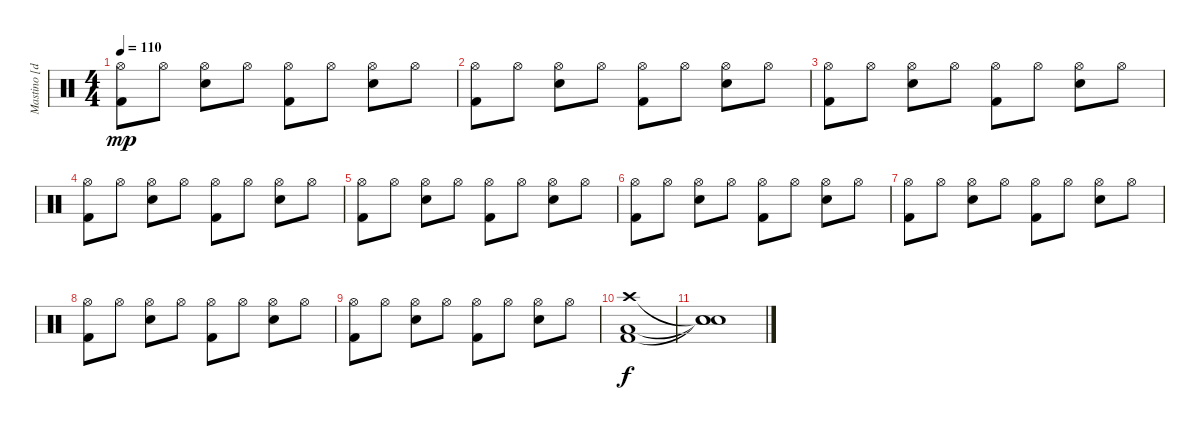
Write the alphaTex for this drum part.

\track ("Mastino [drums]" "Mastino [d") {instrument percussion}
\staff {score}
\articulation defaults
\ts (4 4)
\tempo 110
\clef neutral
\ks c
("Hi-Hat (open)" "Kick (hit) 2").8{dy mp} "Hi-Hat (open)".8 ("Hi-Hat (open)" "Electric Snare (hit)").8 "Hi-Hat (open)".8 ("Hi-Hat (open)" "Kick (hit) 2").8 "Hi-Hat (open)".8 ("Hi-Hat (open)" "Electric Snare (hit)").8 "Hi-Hat (open)".8 |
("Hi-Hat (open)" "Kick (hit) 2").8 "Hi-Hat (open)".8 ("Hi-Hat (open)" "Electric Snare (hit)").8 "Hi-Hat (open)".8 ("Hi-Hat (open)" "Kick (hit) 2").8 "Hi-Hat (open)".8 ("Hi-Hat (open)" "Electric Snare (hit)").8 "Hi-Hat (open)".8 |
("Hi-Hat (open)" "Kick (hit) 2").8 "Hi-Hat (open)".8 ("Hi-Hat (open)" "Electric Snare (hit)").8 "Hi-Hat (open)".8 ("Hi-Hat (open)" "Kick (hit) 2").8 "Hi-Hat (open)".8 ("Hi-Hat (open)" "Electric Snare (hit)").8 "Hi-Hat (open)".8 |
("Hi-Hat (open)" "Kick (hit) 2").8 "Hi-Hat (open)".8 ("Hi-Hat (open)" "Electric Snare (hit)").8 "Hi-Hat (open)".8 ("Hi-Hat (open)" "Kick (hit) 2").8 "Hi-Hat (open)".8 ("Hi-Hat (open)" "Electric Snare (hit)").8 "Hi-Hat (open)".8 |
("Hi-Hat (open)" "Kick (hit) 2").8 "Hi-Hat (open)".8 ("Hi-Hat (open)" "Electric Snare (hit)").8 "Hi-Hat (open)".8 ("Hi-Hat (open)" "Kick (hit) 2").8 "Hi-Hat (open)".8 ("Hi-Hat (open)" "Electric Snare (hit)").8 "Hi-Hat (open)".8 |
("Hi-Hat (open)" "Kick (hit) 2").8 "Hi-Hat (open)".8 ("Hi-Hat (open)" "Electric Snare (hit)").8 "Hi-Hat (open)".8 ("Hi-Hat (open)" "Kick (hit) 2").8 "Hi-Hat (open)".8 ("Hi-Hat (open)" "Electric Snare (hit)").8 "Hi-Hat (open)".8 |
("Hi-Hat (open)" "Kick (hit) 2").8 "Hi-Hat (open)".8 ("Hi-Hat (open)" "Electric Snare (hit)").8 "Hi-Hat (open)".8 ("Hi-Hat (open)" "Kick (hit) 2").8 "Hi-Hat (open)".8 ("Hi-Hat (open)" "Electric Snare (hit)").8 "Hi-Hat (open)".8 |
("Hi-Hat (open)" "Kick (hit) 2").8 "Hi-Hat (open)".8 ("Hi-Hat (open)" "Electric Snare (hit)").8 "Hi-Hat (open)".8 ("Hi-Hat (open)" "Kick (hit) 2").8 "Hi-Hat (open)".8 ("Hi-Hat (open)" "Electric Snare (hit)").8 "Hi-Hat (open)".8 |
("Hi-Hat (open)" "Kick (hit) 2").8 "Hi-Hat (open)".8 ("Hi-Hat (open)" "Electric Snare (hit)").8 "Hi-Hat (open)".8 ("Hi-Hat (open)" "Kick (hit) 2").8 "Hi-Hat (open)".8 ("Hi-Hat (open)" "Electric Snare (hit)").8 "Hi-Hat (open)".8 |
("Crash high (hit)" "Low Tom (hit)" "Kick (hit) 2").1{dy f} |
("Snare (hit)"{t} "Snare (hit)"{t} "Snare (hit)"{t}).1
